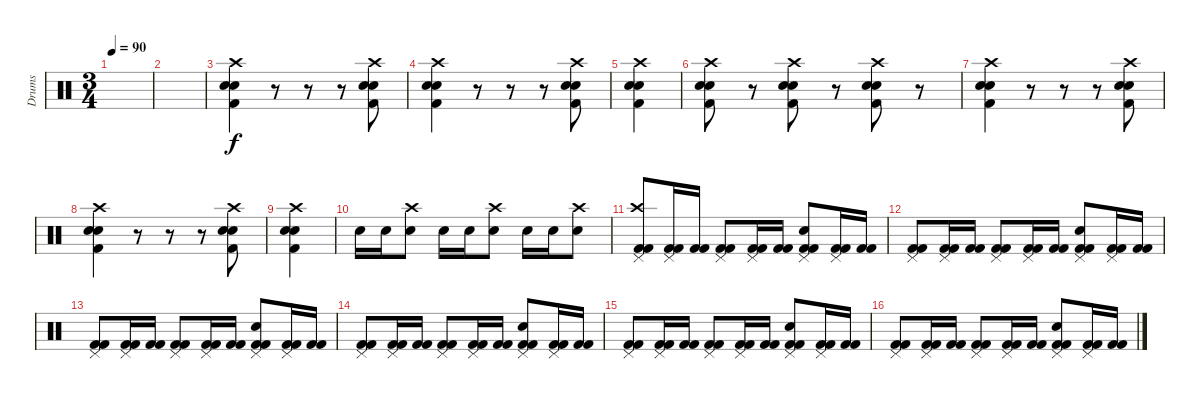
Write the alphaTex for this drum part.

\track ("Drums" "Drums") {instrument percussion bank 41}
\staff
\articulation defaults
\ts (3 4)
\tempo 90
\clef neutral
\ks c
|
|
("Kick (hit) 2" "Snare (hit) 2" "Electric Snare (hit)" "Crash high (hit)").4 r.8 r.8 r.8 ("Kick (hit) 2" "Snare (hit) 2" "Electric Snare (hit)" "Crash high (hit)").8 |
("Kick (hit) 2" "Snare (hit) 2" "Electric Snare (hit)" "Crash high (hit)").4 r.8 r.8 r.8 ("Kick (hit) 2" "Snare (hit) 2" "Electric Snare (hit)" "Crash high (hit)").8 |
("Kick (hit) 2" "Snare (hit) 2" "Electric Snare (hit)" "Crash high (hit)").4 |
("Kick (hit) 2" "Snare (hit) 2" "Electric Snare (hit)" "Crash high (hit)").8 r.8 ("Kick (hit) 2" "Snare (hit) 2" "Electric Snare (hit)" "Crash high (hit)").8 r.8 ("Kick (hit) 2" "Snare (hit) 2" "Electric Snare (hit)" "Crash high (hit)").8 r.8 |
("Kick (hit) 2" "Snare (hit) 2" "Electric Snare (hit)" "Crash high (hit)").4 r.8 r.8 r.8 ("Kick (hit) 2" "Snare (hit) 2" "Electric Snare (hit)" "Crash high (hit)").8 |
("Kick (hit) 2" "Snare (hit) 2" "Electric Snare (hit)" "Crash high (hit)").4 r.8 r.8 r.8 ("Kick (hit) 2" "Snare (hit) 2" "Electric Snare (hit)" "Crash high (hit)").8 |
("Kick (hit) 2" "Snare (hit) 2" "Electric Snare (hit)" "Crash high (hit)").4 |
"Snare (hit) 2".16 "Snare (hit) 2".16 ("Snare (hit) 2" "Crash high (hit)").8 "Snare (hit) 2".16 "Snare (hit) 2".16 ("Snare (hit) 2" "Crash high (hit)").8 "Snare (hit) 2".16 "Snare (hit) 2".16 ("Snare (hit) 2" "Crash high (hit)").8 |
("Kick (hit) 2" "Kick (hit) 2" "Pedal Hi-Hat (hit)" "Crash high (hit)").8 ("Kick (hit) 2" "Kick (hit) 2" "Pedal Hi-Hat (hit)").16 ("Kick (hit) 2" "Kick (hit) 2").16 ("Kick (hit) 2" "Kick (hit) 2" "Pedal Hi-Hat (hit)").8 ("Kick (hit) 2" "Kick (hit) 2" "Pedal Hi-Hat (hit)").16 ("Kick (hit) 2" "Kick (hit) 2").16 ("Kick (hit) 2" "Kick (hit) 2" "Snare (hit) 2" "Pedal Hi-Hat (hit)").8 ("Kick (hit) 2" "Kick (hit) 2" "Pedal Hi-Hat (hit)").16 ("Kick (hit) 2" "Kick (hit) 2").16 |
("Kick (hit) 2" "Kick (hit) 2" "Pedal Hi-Hat (hit)").8 ("Kick (hit) 2" "Kick (hit) 2" "Pedal Hi-Hat (hit)").16 ("Kick (hit) 2" "Kick (hit) 2").16 ("Kick (hit) 2" "Kick (hit) 2" "Pedal Hi-Hat (hit)").8 ("Kick (hit) 2" "Kick (hit) 2" "Pedal Hi-Hat (hit)").16 ("Kick (hit) 2" "Kick (hit) 2").16 ("Kick (hit) 2" "Kick (hit) 2" "Snare (hit) 2" "Pedal Hi-Hat (hit)").8 ("Kick (hit) 2" "Kick (hit) 2" "Pedal Hi-Hat (hit)").16 ("Kick (hit) 2" "Kick (hit) 2").16 |
("Kick (hit) 2" "Kick (hit) 2" "Pedal Hi-Hat (hit)").8 ("Kick (hit) 2" "Kick (hit) 2" "Pedal Hi-Hat (hit)").16 ("Kick (hit) 2" "Kick (hit) 2").16 ("Kick (hit) 2" "Kick (hit) 2" "Pedal Hi-Hat (hit)").8 ("Kick (hit) 2" "Kick (hit) 2" "Pedal Hi-Hat (hit)").16 ("Kick (hit) 2" "Kick (hit) 2").16 ("Kick (hit) 2" "Kick (hit) 2" "Snare (hit) 2" "Pedal Hi-Hat (hit)").8 ("Kick (hit) 2" "Kick (hit) 2" "Pedal Hi-Hat (hit)").16 ("Kick (hit) 2" "Kick (hit) 2").16 |
("Kick (hit) 2" "Kick (hit) 2" "Pedal Hi-Hat (hit)").8 ("Kick (hit) 2" "Kick (hit) 2" "Pedal Hi-Hat (hit)").16 ("Kick (hit) 2" "Kick (hit) 2").16 ("Kick (hit) 2" "Kick (hit) 2" "Pedal Hi-Hat (hit)").8 ("Kick (hit) 2" "Kick (hit) 2" "Pedal Hi-Hat (hit)").16 ("Kick (hit) 2" "Kick (hit) 2").16 ("Kick (hit) 2" "Kick (hit) 2" "Snare (hit) 2" "Pedal Hi-Hat (hit)").8 ("Kick (hit) 2" "Kick (hit) 2" "Pedal Hi-Hat (hit)").16 ("Kick (hit) 2" "Kick (hit) 2").16 |
("Kick (hit) 2" "Kick (hit) 2" "Pedal Hi-Hat (hit)").8 ("Kick (hit) 2" "Kick (hit) 2" "Pedal Hi-Hat (hit)").16 ("Kick (hit) 2" "Kick (hit) 2").16 ("Kick (hit) 2" "Kick (hit) 2" "Pedal Hi-Hat (hit)").8 ("Kick (hit) 2" "Kick (hit) 2" "Pedal Hi-Hat (hit)").16 ("Kick (hit) 2" "Kick (hit) 2").16 ("Kick (hit) 2" "Kick (hit) 2" "Snare (hit) 2" "Pedal Hi-Hat (hit)").8 ("Kick (hit) 2" "Kick (hit) 2" "Pedal Hi-Hat (hit)").16 ("Kick (hit) 2" "Kick (hit) 2").16 |
("Kick (hit) 2" "Kick (hit) 2" "Pedal Hi-Hat (hit)").8 ("Kick (hit) 2" "Kick (hit) 2" "Pedal Hi-Hat (hit)").16 ("Kick (hit) 2" "Kick (hit) 2").16 ("Kick (hit) 2" "Kick (hit) 2" "Pedal Hi-Hat (hit)").8 ("Kick (hit) 2" "Kick (hit) 2" "Pedal Hi-Hat (hit)").16 ("Kick (hit) 2" "Kick (hit) 2").16 ("Kick (hit) 2" "Kick (hit) 2" "Snare (hit) 2" "Pedal Hi-Hat (hit)").8 ("Kick (hit) 2" "Kick (hit) 2" "Pedal Hi-Hat (hit)").16 ("Kick (hit) 2" "Kick (hit) 2").16
